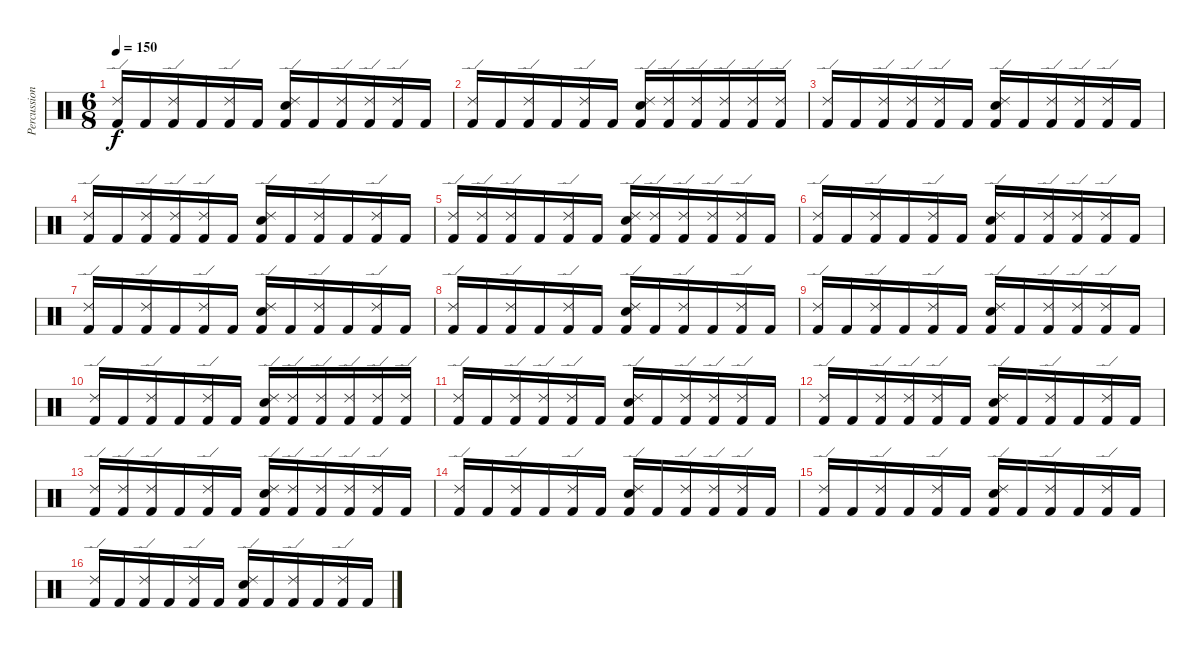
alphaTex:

\track ("Percussion" "Percussion") {instrument percussion}
\staff {score}
\articulation defaults
\ts (6 8)
\tempo 150
\clef neutral
\ks c
("Ride (edge) 2" "Kick (hit) 2").16{dy f} "Kick (hit) 2".16 ("Ride (edge) 2" "Kick (hit) 2").16 "Kick (hit) 2".16 ("Ride (edge) 2" "Kick (hit) 2").16 "Kick (hit) 2".16 ("Ride (edge) 2" "Electric Snare (hit)" "Kick (hit) 2").16 "Kick (hit) 2".16 ("Ride (edge) 2" "Kick (hit) 2").16 ("Ride (edge) 2" "Kick (hit) 2").16 ("Ride (edge) 2" "Kick (hit) 2").16 "Kick (hit) 2".16 |
("Ride (edge) 2" "Kick (hit) 2").16 "Kick (hit) 2".16 ("Ride (edge) 2" "Kick (hit) 2").16 "Kick (hit) 2".16 ("Ride (edge) 2" "Kick (hit) 2").16 "Kick (hit) 2".16 ("Ride (edge) 2" "Electric Snare (hit)" "Kick (hit) 2").16 ("Ride (edge) 2" "Kick (hit) 2").16 ("Ride (edge) 2" "Kick (hit) 2").16 ("Ride (edge) 2" "Kick (hit) 2").16 ("Ride (edge) 2" "Kick (hit) 2").16 ("Ride (edge) 2" "Kick (hit) 2").16 |
("Ride (edge) 2" "Kick (hit) 2").16 "Kick (hit) 2".16 ("Ride (edge) 2" "Kick (hit) 2").16 ("Ride (edge) 2" "Kick (hit) 2").16 ("Ride (edge) 2" "Kick (hit) 2").16 "Kick (hit) 2".16 ("Ride (edge) 2" "Electric Snare (hit)" "Kick (hit) 2").16 "Kick (hit) 2".16 ("Ride (edge) 2" "Kick (hit) 2").16 ("Ride (edge) 2" "Kick (hit) 2").16 ("Ride (edge) 2" "Kick (hit) 2").16 "Kick (hit) 2".16 |
("Ride (edge) 2" "Kick (hit) 2").16 "Kick (hit) 2".16 ("Ride (edge) 2" "Kick (hit) 2").16 ("Ride (edge) 2" "Kick (hit) 2").16 ("Ride (edge) 2" "Kick (hit) 2").16 "Kick (hit) 2".16 ("Ride (edge) 2" "Electric Snare (hit)" "Kick (hit) 2").16 "Kick (hit) 2".16 ("Ride (edge) 2" "Kick (hit) 2").16 "Kick (hit) 2".16 ("Ride (edge) 2" "Kick (hit) 2").16 "Kick (hit) 2".16 |
("Ride (edge) 2" "Kick (hit) 2").16 ("Ride (edge) 2" "Kick (hit) 2").16 ("Ride (edge) 2" "Kick (hit) 2").16 "Kick (hit) 2".16 ("Ride (edge) 2" "Kick (hit) 2").16 "Kick (hit) 2".16 ("Ride (edge) 2" "Electric Snare (hit)" "Kick (hit) 2").16 ("Ride (edge) 2" "Kick (hit) 2").16 ("Ride (edge) 2" "Kick (hit) 2").16 ("Ride (edge) 2" "Kick (hit) 2").16 ("Ride (edge) 2" "Kick (hit) 2").16 "Kick (hit) 2".16 |
("Ride (edge) 2" "Kick (hit) 2").16 "Kick (hit) 2".16 ("Ride (edge) 2" "Kick (hit) 2").16 "Kick (hit) 2".16 ("Ride (edge) 2" "Kick (hit) 2").16 "Kick (hit) 2".16 ("Ride (edge) 2" "Electric Snare (hit)" "Kick (hit) 2").16 "Kick (hit) 2".16 ("Ride (edge) 2" "Kick (hit) 2").16 ("Ride (edge) 2" "Kick (hit) 2").16 ("Ride (edge) 2" "Kick (hit) 2").16 "Kick (hit) 2".16 |
("Ride (edge) 2" "Kick (hit) 2").16 "Kick (hit) 2".16 ("Ride (edge) 2" "Kick (hit) 2").16 "Kick (hit) 2".16 ("Ride (edge) 2" "Kick (hit) 2").16 "Kick (hit) 2".16 ("Ride (edge) 2" "Electric Snare (hit)" "Kick (hit) 2").16 "Kick (hit) 2".16 ("Ride (edge) 2" "Kick (hit) 2").16 "Kick (hit) 2".16 ("Ride (edge) 2" "Kick (hit) 2").16 "Kick (hit) 2".16 |
("Ride (edge) 2" "Kick (hit) 2").16 "Kick (hit) 2".16 ("Ride (edge) 2" "Kick (hit) 2").16 "Kick (hit) 2".16 ("Ride (edge) 2" "Kick (hit) 2").16 "Kick (hit) 2".16 ("Ride (edge) 2" "Electric Snare (hit)" "Kick (hit) 2").16 "Kick (hit) 2".16 ("Ride (edge) 2" "Kick (hit) 2").16 "Kick (hit) 2".16 ("Ride (edge) 2" "Kick (hit) 2").16 "Kick (hit) 2".16 |
("Ride (edge) 2" "Kick (hit) 2").16 "Kick (hit) 2".16 ("Ride (edge) 2" "Kick (hit) 2").16 "Kick (hit) 2".16 ("Ride (edge) 2" "Kick (hit) 2").16 "Kick (hit) 2".16 ("Ride (edge) 2" "Electric Snare (hit)" "Kick (hit) 2").16 "Kick (hit) 2".16 ("Ride (edge) 2" "Kick (hit) 2").16 ("Ride (edge) 2" "Kick (hit) 2").16 ("Ride (edge) 2" "Kick (hit) 2").16 "Kick (hit) 2".16 |
("Ride (edge) 2" "Kick (hit) 2").16 "Kick (hit) 2".16 ("Ride (edge) 2" "Kick (hit) 2").16 "Kick (hit) 2".16 ("Ride (edge) 2" "Kick (hit) 2").16 "Kick (hit) 2".16 ("Ride (edge) 2" "Electric Snare (hit)" "Kick (hit) 2").16 ("Ride (edge) 2" "Kick (hit) 2").16 ("Ride (edge) 2" "Kick (hit) 2").16 ("Ride (edge) 2" "Kick (hit) 2").16 ("Ride (edge) 2" "Kick (hit) 2").16 ("Ride (edge) 2" "Kick (hit) 2").16 |
("Ride (edge) 2" "Kick (hit) 2").16 "Kick (hit) 2".16 ("Ride (edge) 2" "Kick (hit) 2").16 ("Ride (edge) 2" "Kick (hit) 2").16 ("Ride (edge) 2" "Kick (hit) 2").16 "Kick (hit) 2".16 ("Ride (edge) 2" "Electric Snare (hit)" "Kick (hit) 2").16 "Kick (hit) 2".16 ("Ride (edge) 2" "Kick (hit) 2").16 ("Ride (edge) 2" "Kick (hit) 2").16 ("Ride (edge) 2" "Kick (hit) 2").16 "Kick (hit) 2".16 |
("Ride (edge) 2" "Kick (hit) 2").16 "Kick (hit) 2".16 ("Ride (edge) 2" "Kick (hit) 2").16 ("Ride (edge) 2" "Kick (hit) 2").16 ("Ride (edge) 2" "Kick (hit) 2").16 "Kick (hit) 2".16 ("Ride (edge) 2" "Electric Snare (hit)" "Kick (hit) 2").16 "Kick (hit) 2".16 ("Ride (edge) 2" "Kick (hit) 2").16 "Kick (hit) 2".16 ("Ride (edge) 2" "Kick (hit) 2").16 "Kick (hit) 2".16 |
("Ride (edge) 2" "Kick (hit) 2").16 ("Ride (edge) 2" "Kick (hit) 2").16 ("Ride (edge) 2" "Kick (hit) 2").16 "Kick (hit) 2".16 ("Ride (edge) 2" "Kick (hit) 2").16 "Kick (hit) 2".16 ("Ride (edge) 2" "Electric Snare (hit)" "Kick (hit) 2").16 ("Ride (edge) 2" "Kick (hit) 2").16 ("Ride (edge) 2" "Kick (hit) 2").16 ("Ride (edge) 2" "Kick (hit) 2").16 ("Ride (edge) 2" "Kick (hit) 2").16 "Kick (hit) 2".16 |
("Ride (edge) 2" "Kick (hit) 2").16 "Kick (hit) 2".16 ("Ride (edge) 2" "Kick (hit) 2").16 "Kick (hit) 2".16 ("Ride (edge) 2" "Kick (hit) 2").16 "Kick (hit) 2".16 ("Ride (edge) 2" "Electric Snare (hit)" "Kick (hit) 2").16 "Kick (hit) 2".16 ("Ride (edge) 2" "Kick (hit) 2").16 ("Ride (edge) 2" "Kick (hit) 2").16 ("Ride (edge) 2" "Kick (hit) 2").16 "Kick (hit) 2".16 |
("Ride (edge) 2" "Kick (hit) 2").16 "Kick (hit) 2".16 ("Ride (edge) 2" "Kick (hit) 2").16 "Kick (hit) 2".16 ("Ride (edge) 2" "Kick (hit) 2").16 "Kick (hit) 2".16 ("Ride (edge) 2" "Electric Snare (hit)" "Kick (hit) 2").16 "Kick (hit) 2".16 ("Ride (edge) 2" "Kick (hit) 2").16 "Kick (hit) 2".16 ("Ride (edge) 2" "Kick (hit) 2").16 "Kick (hit) 2".16 |
("Ride (edge) 2" "Kick (hit) 2").16 "Kick (hit) 2".16 ("Ride (edge) 2" "Kick (hit) 2").16 "Kick (hit) 2".16 ("Ride (edge) 2" "Kick (hit) 2").16 "Kick (hit) 2".16 ("Ride (edge) 2" "Electric Snare (hit)" "Kick (hit) 2").16 "Kick (hit) 2".16 ("Ride (edge) 2" "Kick (hit) 2").16 "Kick (hit) 2".16 ("Ride (edge) 2" "Kick (hit) 2").16 "Kick (hit) 2".16
